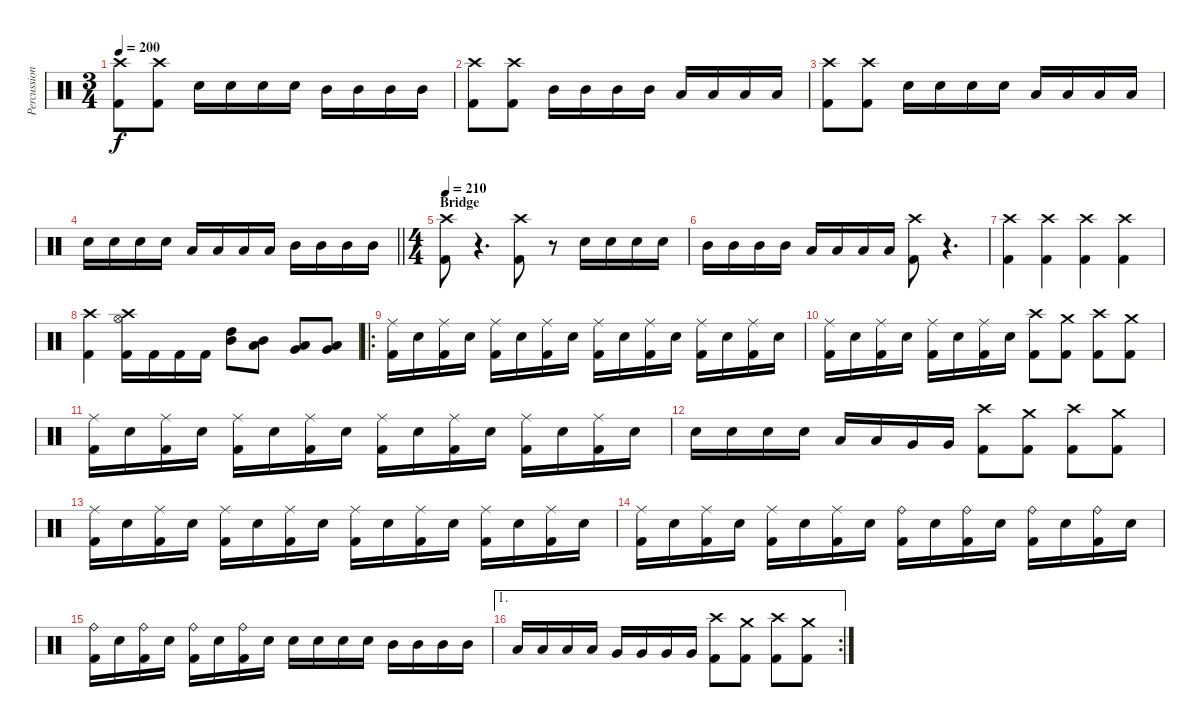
\track ("Percussion" "Percussion") {instrument percussion}
\staff {score}
\articulation defaults
\ts (3 4)
\tempo 200
\clef neutral
\ks c
("Crash high (hit)" "Kick (hit) 2").8{dy f} ("Crash high (hit)" "Kick (hit) 2").8 "Electric Snare (hit)".16 "Electric Snare (hit)".16 "Electric Snare (hit)".16 "Electric Snare (hit)".16 "Mid Tom (hit)".16 "Mid Tom (hit)".16 "Mid Tom (hit)".16 "Mid Tom (hit)".16 |
("Crash high (hit)" "Kick (hit) 2").8 ("Crash high (hit)" "Kick (hit) 2").8 "Mid Tom (hit)".16 "Mid Tom (hit)".16 "Mid Tom (hit)".16 "Mid Tom (hit)".16 "Low Tom (hit)".16 "Low Tom (hit)".16 "Low Tom (hit)".16 "Low Tom (hit)".16 |
("Crash high (hit)" "Kick (hit) 2").8 ("Crash high (hit)" "Kick (hit) 2").8 "Electric Snare (hit)".16 "Electric Snare (hit)".16 "Electric Snare (hit)".16 "Electric Snare (hit)".16 "Low Tom (hit)".16 "Low Tom (hit)".16 "Low Tom (hit)".16 "Low Tom (hit)".16 |
\barLineRight lightlight "Electric Snare (hit)".16 "Electric Snare (hit)".16 "Electric Snare (hit)".16 "Electric Snare (hit)".16 "Low Tom (hit)".16 "Low Tom (hit)".16 "Low Tom (hit)".16 "Low Tom (hit)".16 "Mid Tom (hit)".16 "Mid Tom (hit)".16 "Mid Tom (hit)".16 "Mid Tom (hit)".16
|
\ts (4 4)
\section ("" "Bridge")
\tempo 210
("Crash high (hit)" "Kick (hit) 2").8 r.4{d} ("Crash high (hit)" "Kick (hit) 2").8 r.8 "Electric Snare (hit)".16 "Electric Snare (hit)".16 "Electric Snare (hit)".16 "Electric Snare (hit)".16 |
"Mid Tom (hit)".16 "Mid Tom (hit)".16 "Mid Tom (hit)".16 "Mid Tom (hit)".16 "Low Tom (hit)".16 "Low Tom (hit)".16 "Low Tom (hit)".16 "Low Tom (hit)".16 ("Crash high (hit)" "Kick (hit) 2").8 r.4{d} |
("Crash high (hit)" "Kick (hit) 2").4 ("Crash high (hit)" "Kick (hit) 2").4 ("Crash high (hit)" "Kick (hit) 2").4 ("Crash high (hit)" "Kick (hit) 2").4 |
("Crash high (hit)" "Kick (hit) 2").4 ("Hi-Hat (open)" "Crash high (hit)" "Kick (hit) 2").16 "Kick (hit) 2".16 "Kick (hit) 2".16 "Kick (hit) 2".16 ("High Tom (hit)" "Mid Tom (hit)").8 ("Mid Tom (hit)" "Low Tom (hit)").8 ("Low Tom (hit)" "Very Low Tom (hit)").8 ("Very Low Tom (hit)" "Low Floor Tom (hit)").8 |
\ro
("Ride (middle)" "Kick (hit) 2").16 "Electric Snare (hit)".16 ("Ride (middle)" "Kick (hit) 2").16 "Electric Snare (hit)".16 ("Ride (middle)" "Kick (hit) 2").16 "Electric Snare (hit)".16 ("Ride (middle)" "Kick (hit) 2").16 "Electric Snare (hit)".16 ("Ride (middle)" "Kick (hit) 2").16 "Electric Snare (hit)".16 ("Ride (middle)" "Kick (hit) 2").16 "Electric Snare (hit)".16 ("Ride (middle)" "Kick (hit) 2").16 "Electric Snare (hit)".16 ("Ride (middle)" "Kick (hit) 2").16 "Electric Snare (hit)".16 |
("Ride (middle)" "Kick (hit) 2").16 "Electric Snare (hit)".16 ("Ride (middle)" "Kick (hit) 2").16 "Electric Snare (hit)".16 ("Ride (middle)" "Kick (hit) 2").16 "Electric Snare (hit)".16 ("Ride (middle)" "Kick (hit) 2").16 "Electric Snare (hit)".16 ("Crash high (hit)" "Kick (hit) 2").8 ("Crash medium (hit)" "Kick (hit) 2").8 ("Crash high (hit)" "Kick (hit) 2").8 ("Crash medium (hit)" "Kick (hit) 2").8 |
("Ride (middle)" "Kick (hit) 2").16 "Electric Snare (hit)".16 ("Ride (middle)" "Kick (hit) 2").16 "Electric Snare (hit)".16 ("Ride (middle)" "Kick (hit) 2").16 "Electric Snare (hit)".16 ("Ride (middle)" "Kick (hit) 2").16 "Electric Snare (hit)".16 ("Ride (middle)" "Kick (hit) 2").16 "Electric Snare (hit)".16 ("Ride (middle)" "Kick (hit) 2").16 "Electric Snare (hit)".16 ("Ride (middle)" "Kick (hit) 2").16 "Electric Snare (hit)".16 ("Ride (middle)" "Kick (hit) 2").16 "Electric Snare (hit)".16 |
"Electric Snare (hit)".16 "Electric Snare (hit)".16 "Electric Snare (hit)".16 "Electric Snare (hit)".16 "Low Tom (hit)".16 "Low Tom (hit)".16 "Very Low Tom (hit)".16 "Very Low Tom (hit)".16 ("Crash high (hit)" "Kick (hit) 2").8 ("Crash medium (hit)" "Kick (hit) 2").8 ("Crash high (hit)" "Kick (hit) 2").8 ("Crash medium (hit)" "Kick (hit) 2").8 |
("Ride (middle)" "Kick (hit) 2").16 "Electric Snare (hit)".16 ("Ride (middle)" "Kick (hit) 2").16 "Electric Snare (hit)".16 ("Ride (middle)" "Kick (hit) 2").16 "Electric Snare (hit)".16 ("Ride (middle)" "Kick (hit) 2").16 "Electric Snare (hit)".16 ("Ride (middle)" "Kick (hit) 2").16 "Electric Snare (hit)".16 ("Ride (middle)" "Kick (hit) 2").16 "Electric Snare (hit)".16 ("Ride (middle)" "Kick (hit) 2").16 "Electric Snare (hit)".16 ("Ride (middle)" "Kick (hit) 2").16 "Electric Snare (hit)".16 |
("Ride (middle)" "Kick (hit) 2").16 "Electric Snare (hit)".16 ("Ride (middle)" "Kick (hit) 2").16 "Electric Snare (hit)".16 ("Ride (middle)" "Kick (hit) 2").16 "Electric Snare (hit)".16 ("Ride (middle)" "Kick (hit) 2").16 "Electric Snare (hit)".16 ("Ride (bell)" "Kick (hit) 2").16 "Electric Snare (hit)".16 ("Ride (bell)" "Kick (hit) 2").16 "Electric Snare (hit)".16 ("Ride (bell)" "Kick (hit) 2").16 "Electric Snare (hit)".16 ("Ride (bell)" "Kick (hit) 2").16 "Electric Snare (hit)".16 |
("Ride (bell)" "Kick (hit) 2").16 "Electric Snare (hit)".16 ("Ride (bell)" "Kick (hit) 2").16 "Electric Snare (hit)".16 ("Ride (bell)" "Kick (hit) 2").16 "Electric Snare (hit)".16 ("Ride (bell)" "Kick (hit) 2").16 "Electric Snare (hit)".16 "Electric Snare (hit)".16 "Electric Snare (hit)".16 "Electric Snare (hit)".16 "Electric Snare (hit)".16 "Mid Tom (hit)".16 "Mid Tom (hit)".16 "Mid Tom (hit)".16 "Mid Tom (hit)".16 |
\ae 1
\rc 2 "Low Tom (hit)".16 "Low Tom (hit)".16 "Low Tom (hit)".16 "Low Tom (hit)".16 "Very Low Tom (hit)".16 "Very Low Tom (hit)".16 "Very Low Tom (hit)".16 "Very Low Tom (hit)".16
("Crash high (hit)" "Kick (hit) 2").8 ("Crash medium (hit)" "Kick (hit) 2").8 ("Crash high (hit)" "Kick (hit) 2").8 ("Crash medium (hit)" "Kick (hit) 2").8
